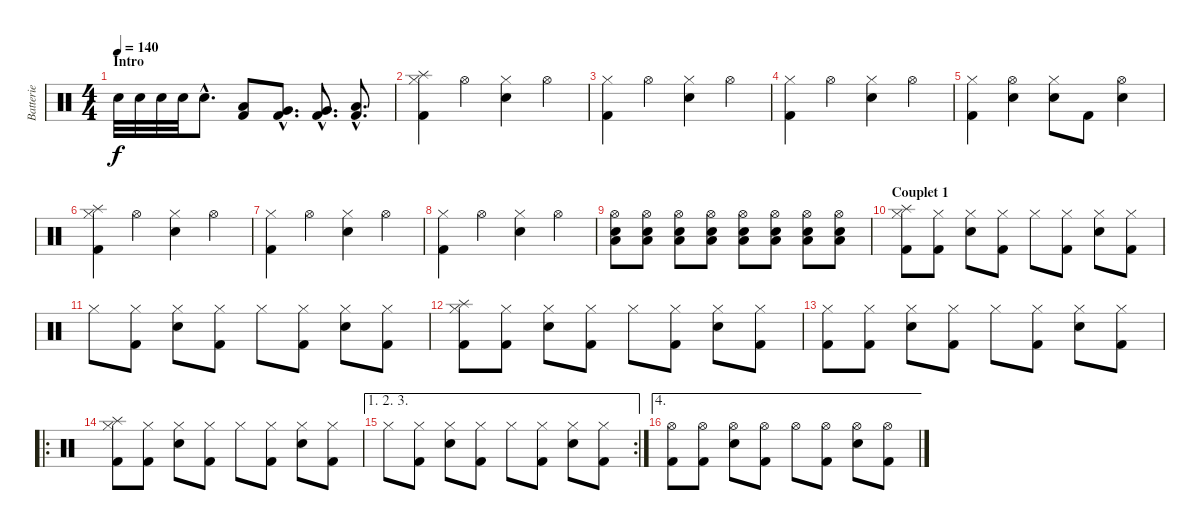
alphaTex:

\track ("Batterie" "Batterie") {instrument percussion}
\staff {score}
\articulation defaults
\ts (4 4)
\section ("" "Intro")
\tempo 140
\clef neutral
\ks c "Snare (hit) 2".32{dy f} "Snare (hit) 2".32 "Snare (hit) 2".32 "Snare (hit) 2".32 "Snare (hit) 2"{hac}.8{d}
("Low Tom (hit)" "Kick (hit) 2").8 ("Very Low Tom (hit)"{hac} "Kick (hit) 2"{hac}).8{d} ("Very Low Tom (hit)"{hac} "Kick (hit) 2"{hac}).8{d} ("Low Floor Tom (hit)"{hac} "Kick (hit) 2"{hac}).8{d} |
("Splash (hit)" "Hi-Hat (closed)" "Kick (hit) 2").4 "Hi-Hat (open)".4 ("Hi-Hat (closed)" "Snare (hit) 2").4 "Hi-Hat (open)".4 |
("Hi-Hat (closed)" "Kick (hit) 2").4 "Hi-Hat (open)".4 ("Hi-Hat (closed)" "Snare (hit) 2").4 "Hi-Hat (open)".4 |
("Hi-Hat (closed)" "Kick (hit) 2").4 "Hi-Hat (open)".4 ("Hi-Hat (closed)" "Snare (hit) 2").4 "Hi-Hat (open)".4 |
("Hi-Hat (closed)" "Kick (hit) 2").4 ("Hi-Hat (open)" "Snare (hit) 2").4 ("Hi-Hat (closed)" "Snare (hit) 2").8 "Kick (hit) 2".8 ("Hi-Hat (open)" "Snare (hit) 2").4 |
("Splash (hit)" "Hi-Hat (closed)" "Kick (hit) 2").4 "Hi-Hat (open)".4 ("Hi-Hat (closed)" "Snare (hit) 2").4 "Hi-Hat (open)".4 |
("Hi-Hat (closed)" "Kick (hit) 2").4 "Hi-Hat (open)".4 ("Hi-Hat (closed)" "Snare (hit) 2").4 "Hi-Hat (open)".4 |
("Hi-Hat (closed)" "Kick (hit) 2").4 "Hi-Hat (open)".4 ("Hi-Hat (closed)" "Snare (hit) 2").4 "Hi-Hat (open)".4 |
("Hi-Hat (open)" "Snare (hit) 2" "Low Floor Tom (hit)").8 ("Hi-Hat (open)" "Snare (hit) 2" "Low Floor Tom (hit)").8 ("Hi-Hat (open)" "Snare (hit) 2" "Low Floor Tom (hit)").8 ("Hi-Hat (open)" "Snare (hit) 2" "Low Floor Tom (hit)").8 ("Hi-Hat (open)" "Snare (hit) 2" "Low Floor Tom (hit)").8 ("Hi-Hat (open)" "Snare (hit) 2" "Low Floor Tom (hit)").8 ("Hi-Hat (open)" "Snare (hit) 2" "Low Floor Tom (hit)").8 ("Hi-Hat (open)" "Snare (hit) 2" "Low Floor Tom (hit)").8 |
\section ("" "Couplet 1")
("Splash (hit)" "Hi-Hat (closed)" "Kick (hit) 2").8 ("Hi-Hat (closed)" "Kick (hit) 2").8 ("Hi-Hat (closed)" "Snare (hit) 2").8 ("Hi-Hat (closed)" "Kick (hit) 2").8 "Hi-Hat (closed)".8 ("Hi-Hat (closed)" "Kick (hit) 2").8 ("Hi-Hat (closed)" "Snare (hit) 2").8 ("Hi-Hat (closed)" "Kick (hit) 2").8 |
"Hi-Hat (closed)".8 ("Hi-Hat (closed)" "Kick (hit) 2").8 ("Hi-Hat (closed)" "Snare (hit) 2").8 ("Hi-Hat (closed)" "Kick (hit) 2").8 "Hi-Hat (closed)".8 ("Hi-Hat (closed)" "Kick (hit) 2").8 ("Hi-Hat (closed)" "Snare (hit) 2").8 ("Hi-Hat (closed)" "Kick (hit) 2").8 |
("Splash (hit)" "Hi-Hat (closed)" "Kick (hit) 2").8 ("Hi-Hat (closed)" "Kick (hit) 2").8 ("Hi-Hat (closed)" "Snare (hit) 2").8 ("Hi-Hat (closed)" "Kick (hit) 2").8 "Hi-Hat (closed)".8 ("Hi-Hat (closed)" "Kick (hit) 2").8 ("Hi-Hat (closed)" "Snare (hit) 2").8 ("Hi-Hat (closed)" "Kick (hit) 2").8 |
("Hi-Hat (closed)" "Kick (hit) 2").8 ("Hi-Hat (closed)" "Kick (hit) 2").8 ("Hi-Hat (closed)" "Snare (hit) 2").8 ("Hi-Hat (closed)" "Kick (hit) 2").8 "Hi-Hat (closed)".8 ("Hi-Hat (closed)" "Kick (hit) 2").8 ("Hi-Hat (closed)" "Snare (hit) 2").8 ("Hi-Hat (closed)" "Kick (hit) 2").8 |
\ro
("Splash (hit)" "Hi-Hat (closed)" "Kick (hit) 2").8 ("Hi-Hat (closed)" "Kick (hit) 2").8 ("Hi-Hat (closed)" "Snare (hit) 2").8 ("Hi-Hat (closed)" "Kick (hit) 2").8 "Hi-Hat (closed)".8 ("Hi-Hat (closed)" "Kick (hit) 2").8 ("Hi-Hat (closed)" "Snare (hit) 2").8 ("Hi-Hat (closed)" "Kick (hit) 2").8 |
\ae (1 2 3)
\rc 2 "Hi-Hat (closed)".8
("Hi-Hat (closed)" "Kick (hit) 2").8 ("Hi-Hat (closed)" "Snare (hit) 2").8 ("Hi-Hat (closed)" "Kick (hit) 2").8 "Hi-Hat (closed)".8 ("Hi-Hat (closed)" "Kick (hit) 2").8 ("Hi-Hat (closed)" "Snare (hit) 2").8 ("Hi-Hat (closed)" "Kick (hit) 2").8 |
\ae 4
("Hi-Hat (open)" "Kick (hit) 2").8 ("Hi-Hat (open)" "Kick (hit) 2").8 ("Hi-Hat (open)" "Snare (hit) 2").8 ("Hi-Hat (open)" "Kick (hit) 2").8 "Hi-Hat (open)".8 ("Hi-Hat (open)" "Kick (hit) 2").8 ("Hi-Hat (open)" "Snare (hit) 2").8 ("Hi-Hat (open)" "Kick (hit) 2").8
